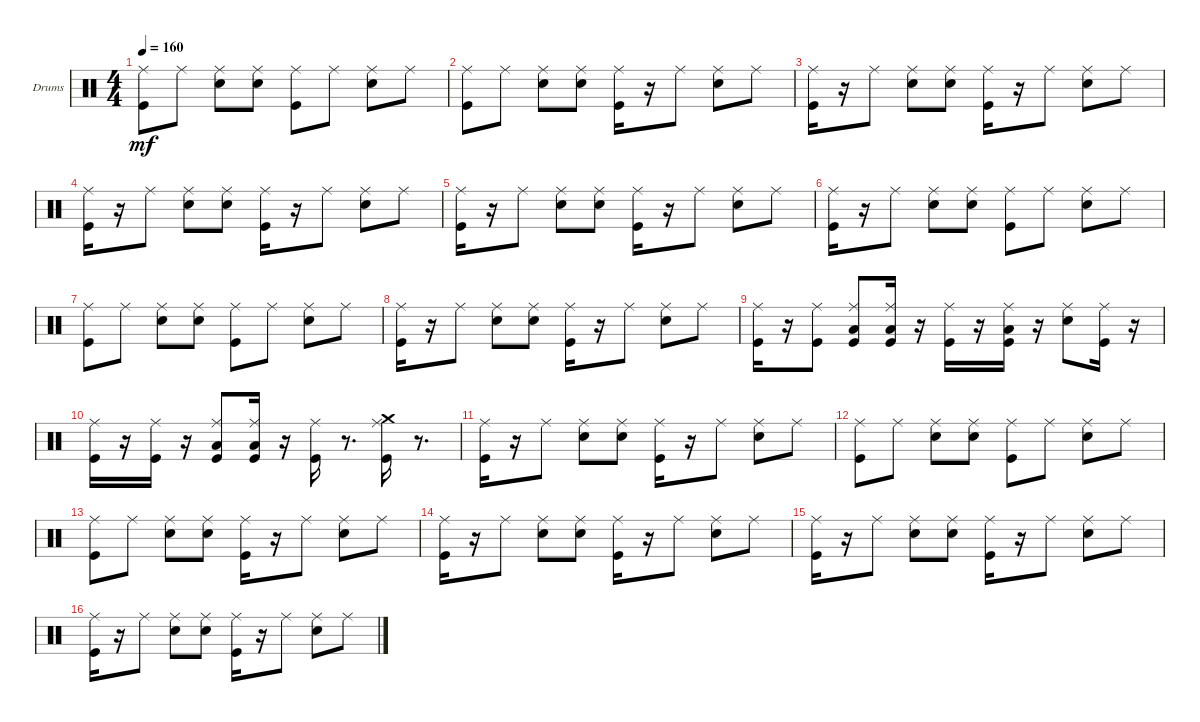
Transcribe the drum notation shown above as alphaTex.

\defaultSystemsLayout 4
\bracketExtendMode groupsimilarinstruments
\firstSystemTrackNameOrientation horizontal
\otherSystemsTrackNameOrientation horizontal
\track ("Drumkit" "Drums") {instrument percussion}
\staff {score}
\articulation defaults
\ts (4 4)
\tempo 160
\clef neutral
\ks c
("Kick (hit)" "Ride (middle)").8{dy mf} "Ride (middle)".8 ("Snare (hit) 2" "Ride (middle)").8 ("Snare (hit) 2" "Ride (middle)").8 ("Kick (hit)" "Ride (middle)").8 "Ride (middle)".8 ("Snare (hit) 2" "Ride (middle)").8 "Ride (middle)".8 |
("Kick (hit)" "Ride (middle)").8 "Ride (middle)".8 ("Snare (hit) 2" "Ride (middle)").8 ("Ride (middle)" "Snare (hit) 2").8 ("Kick (hit)" "Ride (middle)").16 r.16 "Ride (middle)".8 ("Snare (hit) 2" "Ride (middle)").8 "Ride (middle)".8 |
("Kick (hit)" "Ride (middle)").16 r.16 "Ride (middle)".8 ("Snare (hit) 2" "Ride (middle)").8 ("Snare (hit) 2" "Ride (middle)").8 ("Kick (hit)" "Ride (middle)").16 r.16 "Ride (middle)".8 ("Snare (hit) 2" "Ride (middle)").8 "Ride (middle)".8 |
("Kick (hit)" "Ride (middle)").16 r.16 "Ride (middle)".8 ("Snare (hit) 2" "Ride (middle)").8 ("Snare (hit) 2" "Ride (middle)").8 ("Kick (hit)" "Ride (middle)").16 r.16 "Ride (middle)".8 ("Ride (middle)" "Snare (hit) 2").8 "Ride (middle)".8 |
("Kick (hit)" "Ride (middle)").16 r.16 "Ride (middle)".8 ("Snare (hit) 2" "Ride (middle)").8 ("Snare (hit) 2" "Ride (middle)").8 ("Kick (hit)" "Ride (middle)").16 r.16 "Ride (middle)".8 ("Snare (hit) 2" "Ride (middle)").8 "Ride (middle)".8 |
("Kick (hit)" "Ride (middle)").16 r.16 "Ride (middle)".8 ("Snare (hit) 2" "Ride (middle)").8 ("Ride (middle)" "Snare (hit) 2").8 ("Kick (hit)" "Ride (middle)").8 "Ride (middle)".8 ("Snare (hit) 2" "Ride (middle)").8 "Ride (middle)".8 |
("Kick (hit)" "Ride (middle)").8 "Ride (middle)".8 ("Snare (hit) 2" "Ride (middle)").8 ("Snare (hit) 2" "Ride (middle)").8 ("Kick (hit)" "Ride (middle)").8 "Ride (middle)".8 ("Ride (middle)" "Snare (hit) 2").8 "Ride (middle)".8 |
("Kick (hit)" "Ride (middle)").16 r.16 "Ride (middle)".8 ("Snare (hit) 2" "Ride (middle)").8 ("Snare (hit) 2" "Ride (middle)").8 ("Kick (hit)" "Ride (middle)").16 r.16 "Ride (middle)".8 ("Snare (hit) 2" "Ride (middle)").8 "Ride (middle)".8 |
("Kick (hit)" "Ride (middle)").16 r.16 ("Ride (middle)" "Kick (hit)").8 ("Kick (hit)" "Ride (middle)" "Low Tom (hit)").8 ("Ride (middle)" "Low Tom (hit)" "Kick (hit)").16 r.16 ("Kick (hit)" "Ride (middle)").16 r.16 ("Ride (middle)" "Low Tom (hit)" "Kick (hit)").16 r.16 ("Ride (middle)" "Snare (hit) 2").8 ("Kick (hit)" "Ride (middle)").16 r.16 |
("Ride (middle)" "Kick (hit)").16 r.16 ("Ride (middle)" "Kick (hit)").16 r.16 ("Ride (middle)" "Kick (hit)" "Low Tom (hit)").8 ("Ride (middle)" "Low Tom (hit)" "Kick (hit)").16 r.16 ("Ride (middle)" "Kick (hit)").16 r.8{d} ("Ride (middle)" "Kick (hit)" "Crash medium (hit)").16 r.8{d} |
("Kick (hit)" "Ride (middle)").16 r.16 "Ride (middle)".8 ("Snare (hit) 2" "Ride (middle)").8 ("Snare (hit) 2" "Ride (middle)").8 ("Kick (hit)" "Ride (middle)").16 r.16 "Ride (middle)".8 ("Snare (hit) 2" "Ride (middle)").8 "Ride (middle)".8 |
("Kick (hit)" "Ride (middle)").8 "Ride (middle)".8 ("Snare (hit) 2" "Ride (middle)").8 ("Ride (middle)" "Snare (hit) 2").8 ("Kick (hit)" "Ride (middle)").8 "Ride (middle)".8 ("Snare (hit) 2" "Ride (middle)").8 "Ride (middle)".8 |
("Kick (hit)" "Ride (middle)").8 "Ride (middle)".8 ("Snare (hit) 2" "Ride (middle)").8 ("Snare (hit) 2" "Ride (middle)").8 ("Kick (hit)" "Ride (middle)").16 r.16 "Ride (middle)".8 ("Snare (hit) 2" "Ride (middle)").8 "Ride (middle)".8 |
("Kick (hit)" "Ride (middle)").16 r.16 "Ride (middle)".8 ("Snare (hit) 2" "Ride (middle)").8 ("Snare (hit) 2" "Ride (middle)").8 ("Kick (hit)" "Ride (middle)").16 r.16 "Ride (middle)".8 ("Snare (hit) 2" "Ride (middle)").8 "Ride (middle)".8 |
("Kick (hit)" "Ride (middle)").16 r.16 "Ride (middle)".8 ("Snare (hit) 2" "Ride (middle)").8 ("Snare (hit) 2" "Ride (middle)").8 ("Kick (hit)" "Ride (middle)").16 r.16 "Ride (middle)".8 ("Ride (middle)" "Snare (hit) 2").8 "Ride (middle)".8 |
("Kick (hit)" "Ride (middle)").16 r.16 "Ride (middle)".8 ("Snare (hit) 2" "Ride (middle)").8 ("Snare (hit) 2" "Ride (middle)").8 ("Kick (hit)" "Ride (middle)").16 r.16 "Ride (middle)".8 ("Snare (hit) 2" "Ride (middle)").8 "Ride (middle)".8
